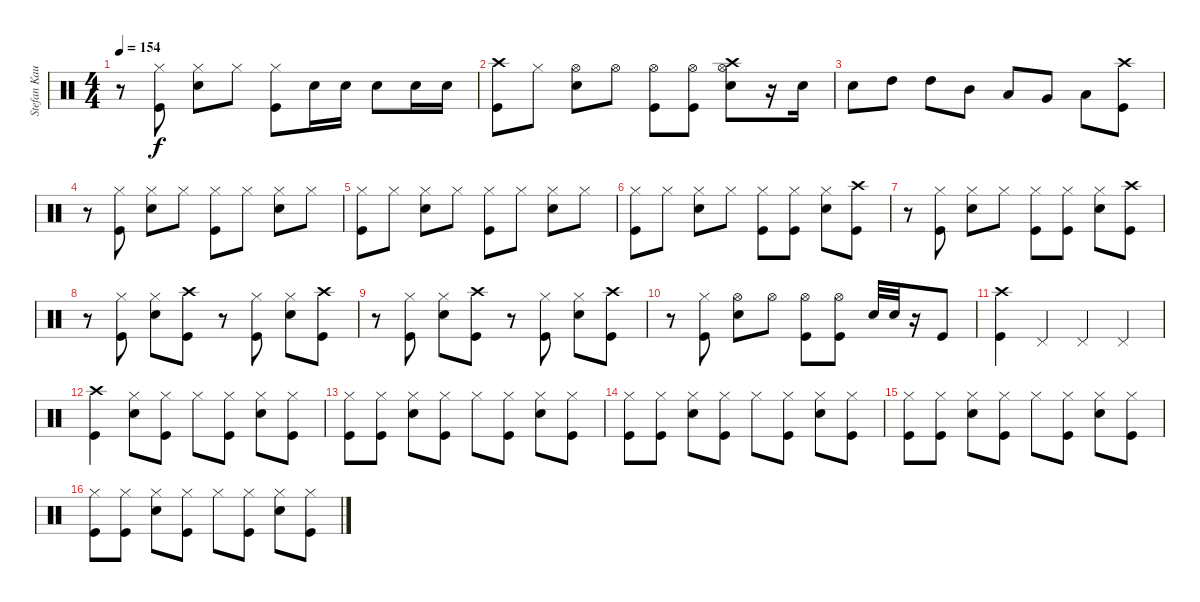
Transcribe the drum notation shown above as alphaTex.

\track ("Stefan Kaufmann" "Stefan Kau") {instrument percussion}
\staff {score}
\articulation defaults
\ts (4 4)
\tempo 154
\clef neutral
\ks c
r.8{dy f} ("Hi-Hat (closed)" "Kick (hit)").8 ("Hi-Hat (closed)" "Snare (hit) 2").8 "Hi-Hat (closed)".8 ("Hi-Hat (closed)" "Kick (hit)").8 "Snare (hit) 2".16 "Snare (hit) 2".16 "Snare (hit) 2".8 "Snare (hit) 2".16 "Snare (hit) 2".16 |
("Crash high (hit)" "Kick (hit)").8 "Hi-Hat (closed)".8 ("Hi-Hat (open)" "Snare (hit) 2").8 "Hi-Hat (open)".8 ("Hi-Hat (open)" "Kick (hit)").8 ("Hi-Hat (open)" "Kick (hit)").8 ("Hi-Hat (open)" "Crash high (hit)" "Snare (hit) 2").8 r.16 "Snare (hit) 2".16 |
"Snare (hit) 2".8 "High Tom (hit)".8 "High Tom (hit)".8 "Mid Tom (hit)".8 "Low Tom (hit)".8 "Very Low Tom (hit)".8 "Low Floor Tom (hit)".8 ("Crash high (hit)" "Kick (hit)").8 |
r.8 ("Hi-Hat (closed)" "Kick (hit)").8 ("Hi-Hat (closed)" "Snare (hit) 2").8 "Hi-Hat (closed)".8 ("Hi-Hat (closed)" "Kick (hit)").8 "Hi-Hat (closed)".8 ("Hi-Hat (closed)" "Snare (hit) 2").8 "Hi-Hat (closed)".8 |
("Hi-Hat (closed)" "Kick (hit)").8 "Hi-Hat (closed)".8 ("Hi-Hat (closed)" "Snare (hit) 2").8 "Hi-Hat (closed)".8 ("Hi-Hat (closed)" "Kick (hit)").8 "Hi-Hat (closed)".8 ("Hi-Hat (closed)" "Snare (hit) 2").8 "Hi-Hat (closed)".8 |
("Hi-Hat (closed)" "Kick (hit)").8 "Hi-Hat (closed)".8 ("Hi-Hat (closed)" "Snare (hit) 2").8 "Hi-Hat (closed)".8 ("Hi-Hat (closed)" "Kick (hit)").8 ("Hi-Hat (closed)" "Kick (hit)").8 ("Hi-Hat (closed)" "Snare (hit) 2").8 ("Crash high (hit)" "Kick (hit)").8 |
r.8 ("Hi-Hat (closed)" "Kick (hit)").8 ("Hi-Hat (closed)" "Snare (hit) 2").8 "Hi-Hat (closed)".8 ("Hi-Hat (closed)" "Kick (hit)").8 ("Hi-Hat (closed)" "Kick (hit)").8 ("Hi-Hat (closed)" "Snare (hit) 2").8 ("Crash high (hit)" "Kick (hit)").8 |
r.8 ("Hi-Hat (closed)" "Kick (hit)").8 ("Hi-Hat (closed)" "Snare (hit) 2").8 ("Crash high (hit)" "Kick (hit)").8 r.8 ("Hi-Hat (closed)" "Kick (hit)").8 ("Hi-Hat (closed)" "Snare (hit) 2").8 ("Crash high (hit)" "Kick (hit)").8 |
r.8 ("Hi-Hat (closed)" "Kick (hit)").8 ("Hi-Hat (closed)" "Snare (hit) 2").8 ("Crash high (hit)" "Kick (hit)").8 r.8 ("Hi-Hat (closed)" "Kick (hit)").8 ("Hi-Hat (closed)" "Snare (hit) 2").8 ("Crash high (hit)" "Kick (hit)").8 |
r.8 ("Hi-Hat (closed)" "Kick (hit)").8 ("Hi-Hat (open)" "Snare (hit) 2").8 "Hi-Hat (open)".8 ("Hi-Hat (open)" "Kick (hit)").8 ("Hi-Hat (open)" "Kick (hit)").8 "Snare (hit) 2".32 "Snare (hit) 2".32 r.16 "Kick (hit)".8 |
("Crash high (hit)" "Kick (hit)").4 "Pedal Hi-Hat (hit)".4 "Pedal Hi-Hat (hit)".4 "Pedal Hi-Hat (hit)".4 |
("Crash high (hit)" "Kick (hit)").4 ("Hi-Hat (closed)" "Snare (hit) 2").8 ("Hi-Hat (closed)" "Kick (hit)").8 "Hi-Hat (closed)".8 ("Hi-Hat (closed)" "Kick (hit)").8 ("Hi-Hat (closed)" "Snare (hit) 2").8 ("Hi-Hat (closed)" "Kick (hit)").8 |
("Hi-Hat (closed)" "Kick (hit)").8 ("Hi-Hat (closed)" "Kick (hit)").8 ("Hi-Hat (closed)" "Snare (hit) 2").8 ("Hi-Hat (closed)" "Kick (hit)").8 "Hi-Hat (closed)".8 ("Hi-Hat (closed)" "Kick (hit)").8 ("Hi-Hat (closed)" "Snare (hit) 2").8 ("Hi-Hat (closed)" "Kick (hit)").8 |
("Hi-Hat (closed)" "Kick (hit)").8 ("Hi-Hat (closed)" "Kick (hit)").8 ("Hi-Hat (closed)" "Snare (hit) 2").8 ("Hi-Hat (closed)" "Kick (hit)").8 "Hi-Hat (closed)".8 ("Hi-Hat (closed)" "Kick (hit)").8 ("Hi-Hat (closed)" "Snare (hit) 2").8 ("Hi-Hat (closed)" "Kick (hit)").8 |
("Hi-Hat (closed)" "Kick (hit)").8 ("Hi-Hat (closed)" "Kick (hit)").8 ("Hi-Hat (closed)" "Snare (hit) 2").8 ("Hi-Hat (closed)" "Kick (hit)").8 "Hi-Hat (closed)".8 ("Hi-Hat (closed)" "Kick (hit)").8 ("Hi-Hat (closed)" "Snare (hit) 2").8 ("Hi-Hat (closed)" "Kick (hit)").8 |
("Hi-Hat (closed)" "Kick (hit)").8 ("Hi-Hat (closed)" "Kick (hit)").8 ("Hi-Hat (closed)" "Snare (hit) 2").8 ("Hi-Hat (closed)" "Kick (hit)").8 "Hi-Hat (closed)".8 ("Hi-Hat (closed)" "Kick (hit)").8 ("Hi-Hat (closed)" "Snare (hit) 2").8 ("Hi-Hat (closed)" "Kick (hit)").8
